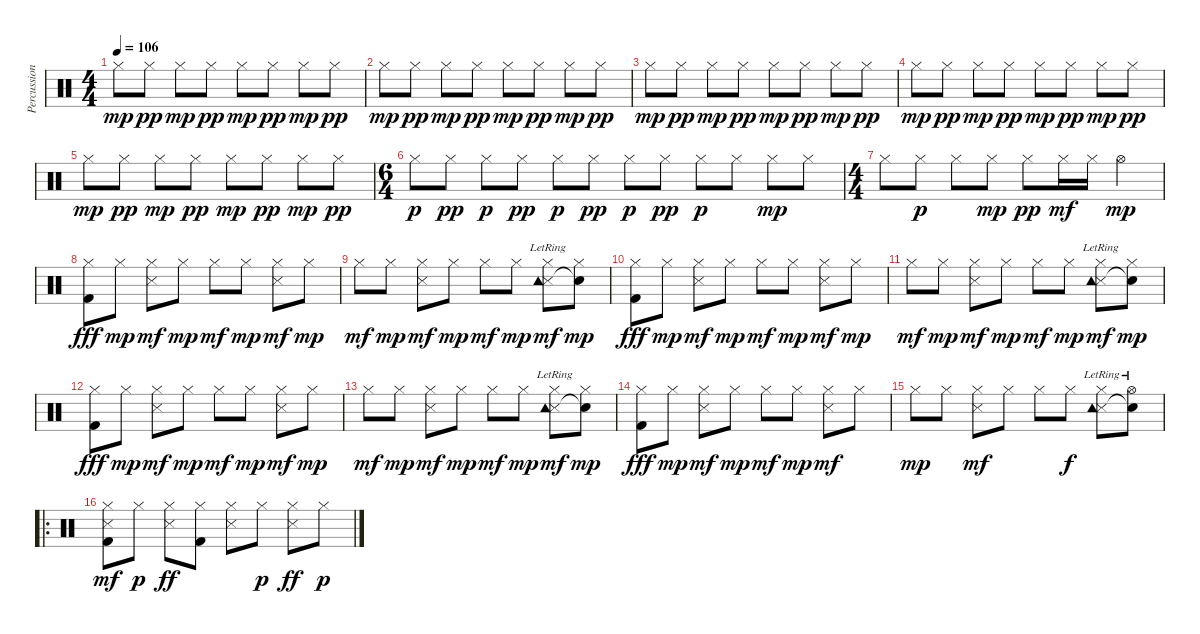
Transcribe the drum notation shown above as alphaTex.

\track ("Percussion" "Percussion") {instrument percussion}
\staff {score}
\articulation defaults
\ts (4 4)
\tempo 106
\clef neutral
\ks c "Hi-Hat (closed)".8{dy mp} "Hi-Hat (closed)".8{dy pp} "Hi-Hat (closed)".8{dy mp} "Hi-Hat (closed)".8{dy pp} "Hi-Hat (closed)".8{dy mp} "Hi-Hat (closed)".8{dy pp} "Hi-Hat (closed)".8{dy mp} "Hi-Hat (closed)".8{dy pp}
|
"Hi-Hat (closed)".8{dy mp} "Hi-Hat (closed)".8{dy pp} "Hi-Hat (closed)".8{dy mp} "Hi-Hat (closed)".8{dy pp} "Hi-Hat (closed)".8{dy mp} "Hi-Hat (closed)".8{dy pp} "Hi-Hat (closed)".8{dy mp} "Hi-Hat (closed)".8{dy pp} |
"Hi-Hat (closed)".8{dy mp} "Hi-Hat (closed)".8{dy pp} "Hi-Hat (closed)".8{dy mp} "Hi-Hat (closed)".8{dy pp} "Hi-Hat (closed)".8{dy mp} "Hi-Hat (closed)".8{dy pp} "Hi-Hat (closed)".8{dy mp} "Hi-Hat (closed)".8{dy pp} |
"Hi-Hat (closed)".8{dy mp} "Hi-Hat (closed)".8{dy pp} "Hi-Hat (closed)".8{dy mp} "Hi-Hat (closed)".8{dy pp} "Hi-Hat (closed)".8{dy mp} "Hi-Hat (closed)".8{dy pp} "Hi-Hat (closed)".8{dy mp} "Hi-Hat (closed)".8{dy pp} |
"Hi-Hat (closed)".8{dy mp} "Hi-Hat (closed)".8{dy pp} "Hi-Hat (closed)".8{dy mp} "Hi-Hat (closed)".8{dy pp} "Hi-Hat (closed)".8{dy mp} "Hi-Hat (closed)".8{dy pp} "Hi-Hat (closed)".8{dy mp} "Hi-Hat (closed)".8{dy pp} |
\ts (6 4)
"Hi-Hat (closed)".8{dy p} "Hi-Hat (closed)".8{dy pp} "Hi-Hat (closed)".8{dy p} "Hi-Hat (closed)".8{dy pp} "Hi-Hat (closed)".8{dy p} "Hi-Hat (closed)".8{dy pp} "Hi-Hat (closed)".8{dy p} "Hi-Hat (closed)".8{dy pp} "Hi-Hat (closed)".8{dy p} "Hi-Hat (closed)".8 "Hi-Hat (closed)".8{dy mp} "Hi-Hat (closed)".8 |
\ts (4 4)
"Hi-Hat (closed)".8 "Hi-Hat (closed)".8{dy p} "Hi-Hat (closed)".8 "Hi-Hat (closed)".8{dy mp} "Hi-Hat (closed)".8{dy pp} "Hi-Hat (closed)".16{dy mf} "Hi-Hat (closed)".16 "Hi-Hat (open)".4{dy mp} |
("Hi-Hat (closed)" "Kick (hit) 2").8{dy fff} "Hi-Hat (closed)".8{dy mp} ("Hi-Hat (closed)" "Snare (side stick) 3").8{dy mf} "Hi-Hat (closed)".8{dy mp} "Hi-Hat (closed)".8{dy mf} "Hi-Hat (closed)".8{dy mp} ("Hi-Hat (closed)" "Snare (side stick) 3").8{dy mf} "Hi-Hat (closed)".8{dy mp} |
"Hi-Hat (closed)".8{dy mf} "Hi-Hat (closed)".8{dy mp} ("Hi-Hat (closed)" "Snare (side stick) 3").8{dy mf} "Hi-Hat (closed)".8{dy mp} "Hi-Hat (closed)".8{dy mf} "Hi-Hat (closed)".8{dy mp} ("Hi-Hat (closed)" "Snare (side stick) 3" "Tambourine (hit)"{lr}).8{dy mf} ("Hi-Hat (closed)" "Snare (hit)"{t}).8{dy mp} |
("Hi-Hat (closed)" "Kick (hit) 2").8{dy fff} "Hi-Hat (closed)".8{dy mp} ("Hi-Hat (closed)" "Snare (side stick) 3").8{dy mf} "Hi-Hat (closed)".8{dy mp} "Hi-Hat (closed)".8{dy mf} "Hi-Hat (closed)".8{dy mp} ("Hi-Hat (closed)" "Snare (side stick) 3").8{dy mf} "Hi-Hat (closed)".8{dy mp} |
"Hi-Hat (closed)".8{dy mf} "Hi-Hat (closed)".8{dy mp} ("Hi-Hat (closed)" "Snare (side stick) 3").8{dy mf} "Hi-Hat (closed)".8{dy mp} "Hi-Hat (closed)".8{dy mf} "Hi-Hat (closed)".8{dy mp} ("Hi-Hat (closed)" "Snare (side stick) 3" "Tambourine (hit)"{lr}).8{dy mf} ("Hi-Hat (closed)" "Snare (hit)"{t}).8{dy mp} |
("Hi-Hat (closed)" "Kick (hit) 2").8{dy fff} "Hi-Hat (closed)".8{dy mp} ("Hi-Hat (closed)" "Snare (side stick) 3").8{dy mf} "Hi-Hat (closed)".8{dy mp} "Hi-Hat (closed)".8{dy mf} "Hi-Hat (closed)".8{dy mp} ("Hi-Hat (closed)" "Snare (side stick) 3").8{dy mf} "Hi-Hat (closed)".8{dy mp} |
"Hi-Hat (closed)".8{dy mf} "Hi-Hat (closed)".8{dy mp} ("Hi-Hat (closed)" "Snare (side stick) 3").8{dy mf} "Hi-Hat (closed)".8{dy mp} "Hi-Hat (closed)".8{dy mf} "Hi-Hat (closed)".8{dy mp} ("Hi-Hat (closed)" "Snare (side stick) 3" "Tambourine (hit)"{lr}).8{dy mf} ("Hi-Hat (closed)" "Snare (hit)"{t}).8{dy mp} |
("Hi-Hat (closed)" "Kick (hit) 2").8{dy fff} "Hi-Hat (closed)".8{dy mp} ("Hi-Hat (closed)" "Snare (side stick) 3").8{dy mf} "Hi-Hat (closed)".8{dy mp} "Hi-Hat (closed)".8{dy mf} "Hi-Hat (closed)".8{dy mp} ("Hi-Hat (closed)" "Snare (side stick) 3").8{dy mf} "Hi-Hat (closed)".8 |
"Hi-Hat (closed)".8{dy mp} "Hi-Hat (closed)".8 ("Hi-Hat (closed)" "Snare (side stick) 3").8{dy mf} "Hi-Hat (closed)".8 "Hi-Hat (closed)".8 "Hi-Hat (closed)".8{dy f} ("Hi-Hat (closed)" "Snare (side stick) 3" "Tambourine (hit)"{lr}).8 ("Hi-Hat (open)"{lr} "Snare (hit)"{t}).8 |
\ro
("Hi-Hat (closed)" "Kick (hit) 2" "Snare (side stick) 3").8{dy mf} "Hi-Hat (closed)".8{dy p} ("Hi-Hat (closed)" "Snare (side stick) 3").8{dy ff} ("Hi-Hat (closed)" "Kick (hit) 2").8 ("Hi-Hat (closed)" "Snare (side stick) 3").8 "Hi-Hat (closed)".8{dy p} ("Hi-Hat (closed)" "Snare (side stick) 3").8{dy ff} "Hi-Hat (closed)".8{dy p}
